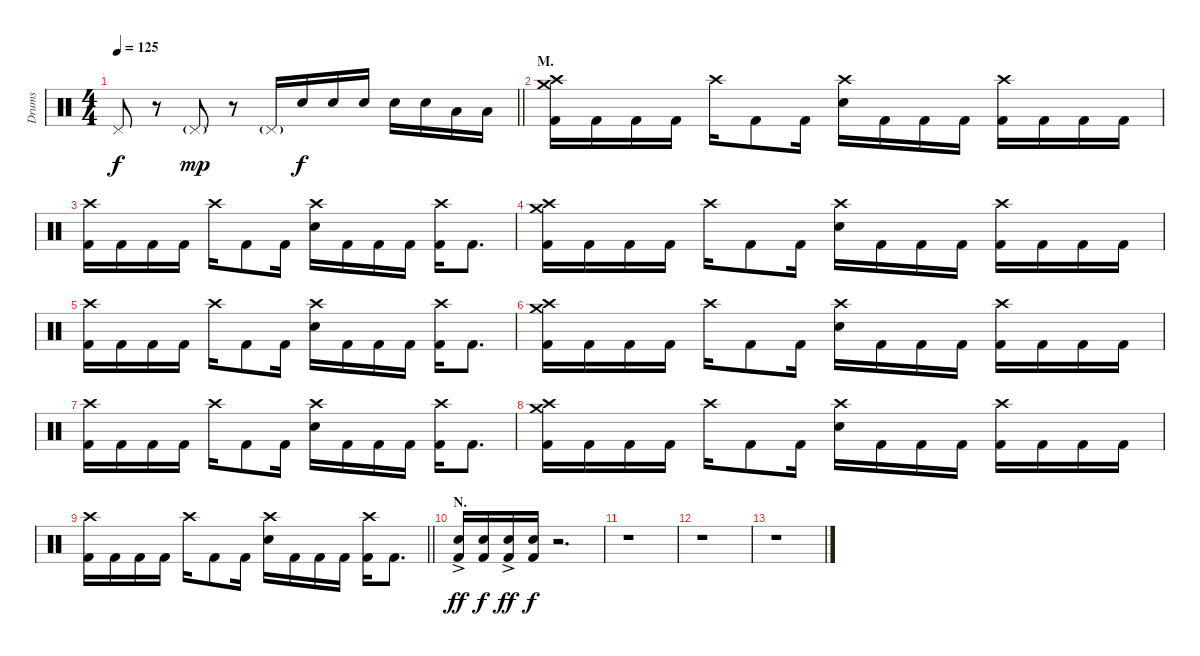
\track ("Drums" "Drums") {instrument percussion}
\staff {score}
\articulation defaults
\ts (4 4)
\tempo 125
\clef neutral
\barLineRight lightlight
\ks c "Pedal Hi-Hat (hit)".8{dy f}
r.8 "Pedal Hi-Hat (hit)"{g}.8{dy mp} r.8 "Pedal Hi-Hat (hit)"{g}.16 "Electric Snare (hit)".16{dy f} "Electric Snare (hit)".16 "Electric Snare (hit)".16 "Electric Snare (hit)".16 "Electric Snare (hit)".16 "Low Tom (hit)".16 "Low Tom (hit)".16 |
\section ("" "M.")
("Crash medium (hit)" "Crash high (hit)" "Kick (hit) 2").16 "Kick (hit) 2".16 "Kick (hit) 2".16 "Kick (hit) 2".16 "Crash high (hit)".16 "Kick (hit) 2".8 "Kick (hit) 2".16 ("Crash high (hit)" "Electric Snare (hit)").16 "Kick (hit) 2".16 "Kick (hit) 2".16 "Kick (hit) 2".16 ("Crash high (hit)" "Kick (hit) 2").16 "Kick (hit) 2".16 "Kick (hit) 2".16 "Kick (hit) 2".16 |
("Crash high (hit)" "Kick (hit) 2").16 "Kick (hit) 2".16 "Kick (hit) 2".16 "Kick (hit) 2".16 "Crash high (hit)".16 "Kick (hit) 2".8 "Kick (hit) 2".16 ("Crash high (hit)" "Electric Snare (hit)").16 "Kick (hit) 2".16 "Kick (hit) 2".16 "Kick (hit) 2".16 ("Crash high (hit)" "Kick (hit) 2").16 "Kick (hit) 2".8{d} |
("Crash medium (hit)" "Crash high (hit)" "Kick (hit) 2").16 "Kick (hit) 2".16 "Kick (hit) 2".16 "Kick (hit) 2".16 "Crash high (hit)".16 "Kick (hit) 2".8 "Kick (hit) 2".16 ("Crash high (hit)" "Electric Snare (hit)").16 "Kick (hit) 2".16 "Kick (hit) 2".16 "Kick (hit) 2".16 ("Crash high (hit)" "Kick (hit) 2").16 "Kick (hit) 2".16 "Kick (hit) 2".16 "Kick (hit) 2".16 |
("Crash high (hit)" "Kick (hit) 2").16 "Kick (hit) 2".16 "Kick (hit) 2".16 "Kick (hit) 2".16 "Crash high (hit)".16 "Kick (hit) 2".8 "Kick (hit) 2".16 ("Crash high (hit)" "Electric Snare (hit)").16 "Kick (hit) 2".16 "Kick (hit) 2".16 "Kick (hit) 2".16 ("Crash high (hit)" "Kick (hit) 2").16 "Kick (hit) 2".8{d} |
("Crash medium (hit)" "Crash high (hit)" "Kick (hit) 2").16 "Kick (hit) 2".16 "Kick (hit) 2".16 "Kick (hit) 2".16 "Crash high (hit)".16 "Kick (hit) 2".8 "Kick (hit) 2".16 ("Crash high (hit)" "Electric Snare (hit)").16 "Kick (hit) 2".16 "Kick (hit) 2".16 "Kick (hit) 2".16 ("Crash high (hit)" "Kick (hit) 2").16 "Kick (hit) 2".16 "Kick (hit) 2".16 "Kick (hit) 2".16 |
("Crash high (hit)" "Kick (hit) 2").16 "Kick (hit) 2".16 "Kick (hit) 2".16 "Kick (hit) 2".16 "Crash high (hit)".16 "Kick (hit) 2".8 "Kick (hit) 2".16 ("Crash high (hit)" "Electric Snare (hit)").16 "Kick (hit) 2".16 "Kick (hit) 2".16 "Kick (hit) 2".16 ("Crash high (hit)" "Kick (hit) 2").16 "Kick (hit) 2".8{d} |
("Crash medium (hit)" "Crash high (hit)" "Kick (hit) 2").16 "Kick (hit) 2".16 "Kick (hit) 2".16 "Kick (hit) 2".16 "Crash high (hit)".16 "Kick (hit) 2".8 "Kick (hit) 2".16 ("Crash high (hit)" "Electric Snare (hit)").16 "Kick (hit) 2".16 "Kick (hit) 2".16 "Kick (hit) 2".16 ("Crash high (hit)" "Kick (hit) 2").16 "Kick (hit) 2".16 "Kick (hit) 2".16 "Kick (hit) 2".16 |
\barLineRight lightlight
("Crash high (hit)" "Kick (hit) 2").16 "Kick (hit) 2".16 "Kick (hit) 2".16 "Kick (hit) 2".16 "Crash high (hit)".16 "Kick (hit) 2".8 "Kick (hit) 2".16 ("Crash high (hit)" "Electric Snare (hit)").16 "Kick (hit) 2".16 "Kick (hit) 2".16 "Kick (hit) 2".16 ("Crash high (hit)" "Kick (hit) 2").16 "Kick (hit) 2".8{d} |
\section ("" "N.")
("Electric Snare (hit)"{ac} "Kick (hit) 2").16{dy ff} ("Electric Snare (hit)" "Kick (hit) 2").16{dy f} ("Electric Snare (hit)"{ac} "Kick (hit) 2").16{dy ff} ("Electric Snare (hit)" "Kick (hit) 2").16{dy f} r.2{d} |
r.1 |
r.1 |
r.1
